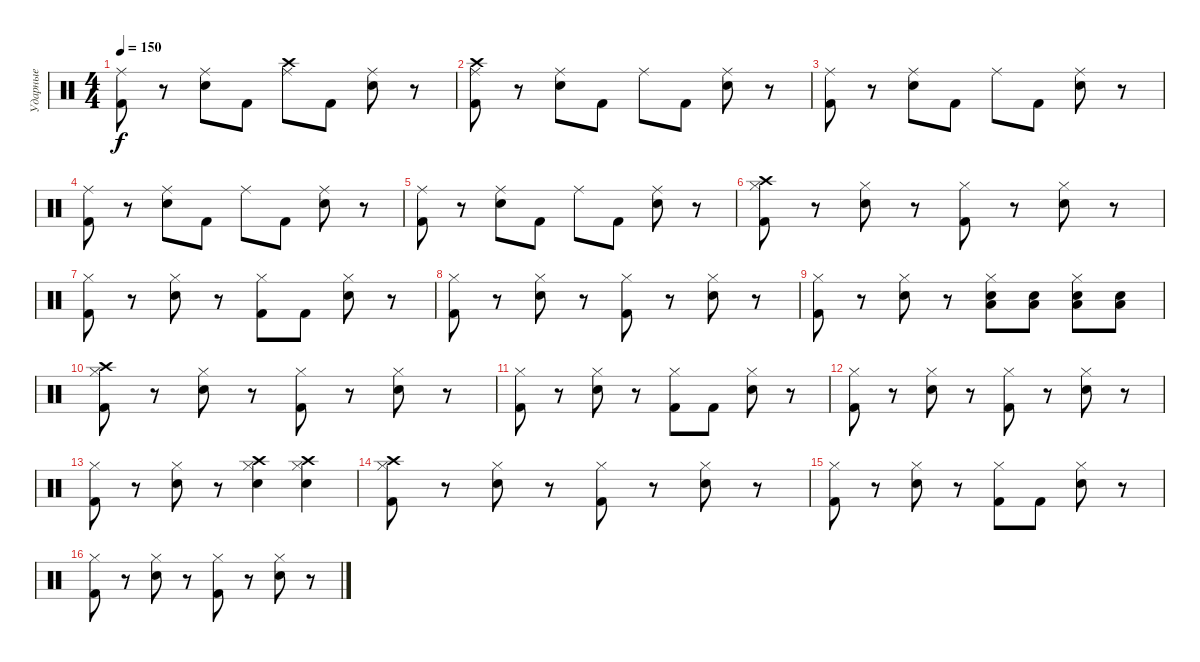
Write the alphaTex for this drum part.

\track ("Ударные" "Ударные") {instrument percussion}
\staff {score}
\articulation defaults
\ts (4 4)
\tempo 150
\clef neutral
\ks c
("Ride (middle)" "Kick (hit) 2").8{dy f} r.8 ("Ride (middle)" "Snare (hit) 2").8 "Kick (hit) 2".8 ("Ride (middle)" "Crash high (hit)").8 "Kick (hit) 2".8 ("Ride (middle)" "Snare (hit) 2").8 r.8 |
("Ride (middle)" "Kick (hit) 2" "Crash high (hit)").8 r.8 ("Ride (middle)" "Snare (hit) 2").8 "Kick (hit) 2".8 "Ride (middle)".8 "Kick (hit) 2".8 ("Ride (middle)" "Snare (hit) 2").8 r.8 |
("Ride (middle)" "Kick (hit) 2").8 r.8 ("Ride (middle)" "Snare (hit) 2").8 "Kick (hit) 2".8 "Ride (middle)".8 "Kick (hit) 2".8 ("Ride (middle)" "Snare (hit) 2").8 r.8 |
("Ride (middle)" "Kick (hit) 2").8 r.8 ("Ride (middle)" "Snare (hit) 2").8 "Kick (hit) 2".8 "Ride (middle)".8 "Kick (hit) 2".8 ("Ride (middle)" "Snare (hit) 2").8 r.8 |
("Ride (middle)" "Kick (hit) 2").8 r.8 ("Ride (middle)" "Snare (hit) 2").8 "Kick (hit) 2".8 "Ride (middle)".8 "Kick (hit) 2".8 ("Ride (middle)" "Snare (hit) 2").8 r.8 |
("Hi-Hat (closed)" "Kick (hit) 2" "Crash high (hit)").8 r.8 ("Hi-Hat (closed)" "Snare (hit) 2").8 r.8 ("Hi-Hat (closed)" "Kick (hit) 2").8 r.8 ("Hi-Hat (closed)" "Snare (hit) 2").8 r.8 |
("Hi-Hat (closed)" "Kick (hit) 2").8 r.8 ("Hi-Hat (closed)" "Snare (hit) 2").8 r.8 ("Hi-Hat (closed)" "Kick (hit) 2").8 "Kick (hit) 2".8 ("Hi-Hat (closed)" "Snare (hit) 2").8 r.8 |
("Hi-Hat (closed)" "Kick (hit) 2").8 r.8 ("Hi-Hat (closed)" "Snare (hit) 2").8 r.8 ("Hi-Hat (closed)" "Kick (hit) 2").8 r.8 ("Hi-Hat (closed)" "Snare (hit) 2").8 r.8 |
("Hi-Hat (closed)" "Kick (hit) 2").8 r.8 ("Hi-Hat (closed)" "Snare (hit) 2").8 r.8 ("Hi-Hat (closed)" "Snare (hit) 2" "Low Floor Tom (hit)").8 ("Snare (hit) 2" "Low Floor Tom (hit)").8 ("Hi-Hat (closed)" "Snare (hit) 2" "Low Floor Tom (hit)").8 ("Snare (hit) 2" "Low Floor Tom (hit)").8 |
("Hi-Hat (closed)" "Kick (hit) 2" "Crash high (hit)").8 r.8 ("Hi-Hat (closed)" "Snare (hit) 2").8 r.8 ("Hi-Hat (closed)" "Kick (hit) 2").8 r.8 ("Hi-Hat (closed)" "Snare (hit) 2").8 r.8 |
("Hi-Hat (closed)" "Kick (hit) 2").8 r.8 ("Hi-Hat (closed)" "Snare (hit) 2").8 r.8 ("Hi-Hat (closed)" "Kick (hit) 2").8 "Kick (hit) 2".8 ("Hi-Hat (closed)" "Snare (hit) 2").8 r.8 |
("Hi-Hat (closed)" "Kick (hit) 2").8 r.8 ("Hi-Hat (closed)" "Snare (hit) 2").8 r.8 ("Hi-Hat (closed)" "Kick (hit) 2").8 r.8 ("Hi-Hat (closed)" "Snare (hit) 2").8 r.8 |
("Hi-Hat (closed)" "Kick (hit) 2").8 r.8 ("Hi-Hat (closed)" "Snare (hit) 2").8 r.8 ("Hi-Hat (closed)" "Snare (hit) 2" "Crash high (hit)").4 ("Hi-Hat (closed)" "Snare (hit) 2" "Crash high (hit)").4 |
("Hi-Hat (closed)" "Kick (hit) 2" "Crash high (hit)").8 r.8 ("Hi-Hat (closed)" "Snare (hit) 2").8 r.8 ("Hi-Hat (closed)" "Kick (hit) 2").8 r.8 ("Hi-Hat (closed)" "Snare (hit) 2").8 r.8 |
("Hi-Hat (closed)" "Kick (hit) 2").8 r.8 ("Hi-Hat (closed)" "Snare (hit) 2").8 r.8 ("Hi-Hat (closed)" "Kick (hit) 2").8 "Kick (hit) 2".8 ("Hi-Hat (closed)" "Snare (hit) 2").8 r.8 |
("Hi-Hat (closed)" "Kick (hit) 2").8 r.8 ("Hi-Hat (closed)" "Snare (hit) 2").8 r.8 ("Hi-Hat (closed)" "Kick (hit) 2").8 r.8 ("Hi-Hat (closed)" "Snare (hit) 2").8 r.8
